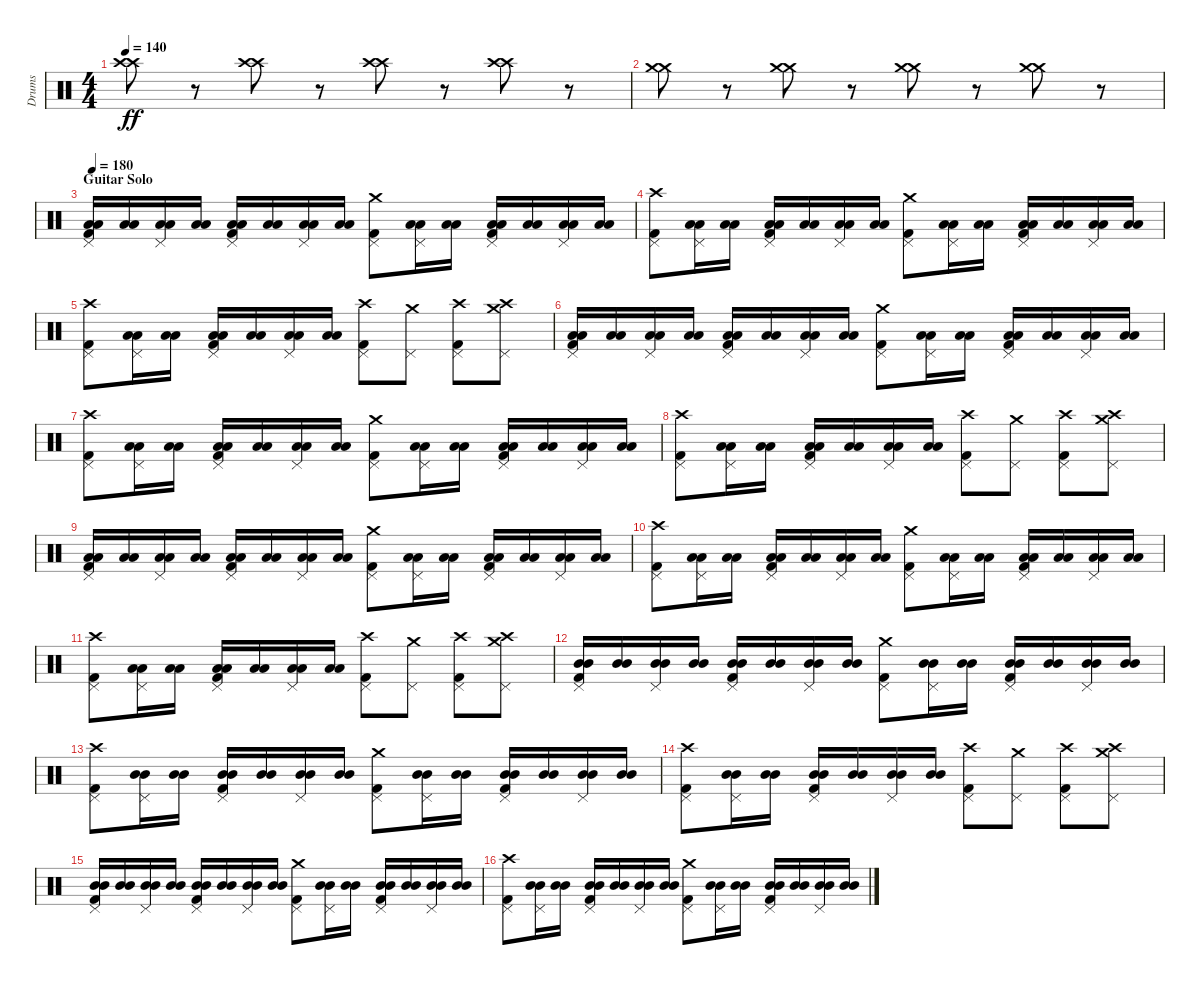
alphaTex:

\track ("Drums" "Drums") {instrument percussion}
\staff {score}
\articulation defaults
\ts (4 4)
\tempo 140
\clef neutral
\ks c
("Crash high (hit)" "Crash high (hit)").8{dy ff} r.8 ("Crash high (hit)" "Crash high (hit)").8 r.8 ("Crash high (hit)" "Crash high (hit)").8 r.8 ("Crash high (hit)" "Crash high (hit)").8 r.8 |
("Crash medium (hit)" "Crash medium (hit)").8 r.8 ("Crash medium (hit)" "Crash medium (hit)").8 r.8 ("Crash medium (hit)" "Crash medium (hit)").8 r.8 ("Crash medium (hit)" "Crash medium (hit)").8 r.8 |
\section ("" "Guitar Solo")
\tempo 180
("Pedal Hi-Hat (hit)" "Low Tom (hit)" "Kick (hit) 2" "Low Tom (hit)").16 ("Low Tom (hit)" "Low Tom (hit)").16 ("Pedal Hi-Hat (hit)" "Low Tom (hit)" "Low Tom (hit)").16 ("Low Tom (hit)" "Low Tom (hit)").16 ("Pedal Hi-Hat (hit)" "Low Tom (hit)" "Kick (hit) 2" "Low Tom (hit)").16 ("Low Tom (hit)" "Low Tom (hit)").16 ("Pedal Hi-Hat (hit)" "Low Tom (hit)" "Low Tom (hit)").16 ("Low Tom (hit)" "Low Tom (hit)").16 ("Pedal Hi-Hat (hit)" "Crash medium (hit)" "Kick (hit) 2").8 ("Pedal Hi-Hat (hit)" "Low Tom (hit)" "Low Tom (hit)").16 ("Low Tom (hit)" "Low Tom (hit)").16 ("Pedal Hi-Hat (hit)" "Low Tom (hit)" "Kick (hit) 2" "Low Tom (hit)").16 ("Low Tom (hit)" "Low Tom (hit)").16 ("Pedal Hi-Hat (hit)" "Low Tom (hit)" "Low Tom (hit)").16 ("Low Tom (hit)" "Low Tom (hit)").16 |
("Crash high (hit)" "Pedal Hi-Hat (hit)" "Kick (hit) 2").8 ("Pedal Hi-Hat (hit)" "Low Tom (hit)" "Low Tom (hit)").16 ("Low Tom (hit)" "Low Tom (hit)").16 ("Pedal Hi-Hat (hit)" "Low Tom (hit)" "Kick (hit) 2" "Low Tom (hit)").16 ("Low Tom (hit)" "Low Tom (hit)").16 ("Pedal Hi-Hat (hit)" "Low Tom (hit)" "Low Tom (hit)").16 ("Low Tom (hit)" "Low Tom (hit)").16 ("Pedal Hi-Hat (hit)" "Crash medium (hit)" "Kick (hit) 2").8 ("Pedal Hi-Hat (hit)" "Low Tom (hit)" "Low Tom (hit)").16 ("Low Tom (hit)" "Low Tom (hit)").16 ("Pedal Hi-Hat (hit)" "Low Tom (hit)" "Kick (hit) 2" "Low Tom (hit)").16 ("Low Tom (hit)" "Low Tom (hit)").16 ("Pedal Hi-Hat (hit)" "Low Tom (hit)" "Low Tom (hit)").16 ("Low Tom (hit)" "Low Tom (hit)").16 |
("Crash high (hit)" "Pedal Hi-Hat (hit)" "Kick (hit) 2").8 ("Pedal Hi-Hat (hit)" "Low Tom (hit)" "Low Tom (hit)").16 ("Low Tom (hit)" "Low Tom (hit)").16 ("Pedal Hi-Hat (hit)" "Low Tom (hit)" "Kick (hit) 2" "Low Tom (hit)").16 ("Low Tom (hit)" "Low Tom (hit)").16 ("Pedal Hi-Hat (hit)" "Low Tom (hit)" "Low Tom (hit)").16 ("Low Tom (hit)" "Low Tom (hit)").16 ("Crash high (hit)" "Pedal Hi-Hat (hit)" "Kick (hit) 2").8 ("Pedal Hi-Hat (hit)" "Crash medium (hit)").8 ("Crash high (hit)" "Pedal Hi-Hat (hit)" "Kick (hit) 2").8 ("Crash high (hit)" "Pedal Hi-Hat (hit)" "Crash medium (hit)").8 |
("Pedal Hi-Hat (hit)" "Low Tom (hit)" "Kick (hit) 2" "Low Tom (hit)").16 ("Low Tom (hit)" "Low Tom (hit)").16 ("Pedal Hi-Hat (hit)" "Low Tom (hit)" "Low Tom (hit)").16 ("Low Tom (hit)" "Low Tom (hit)").16 ("Pedal Hi-Hat (hit)" "Low Tom (hit)" "Kick (hit) 2" "Low Tom (hit)").16 ("Low Tom (hit)" "Low Tom (hit)").16 ("Pedal Hi-Hat (hit)" "Low Tom (hit)" "Low Tom (hit)").16 ("Low Tom (hit)" "Low Tom (hit)").16 ("Pedal Hi-Hat (hit)" "Crash medium (hit)" "Kick (hit) 2").8 ("Pedal Hi-Hat (hit)" "Low Tom (hit)" "Low Tom (hit)").16 ("Low Tom (hit)" "Low Tom (hit)").16 ("Pedal Hi-Hat (hit)" "Low Tom (hit)" "Kick (hit) 2" "Low Tom (hit)").16 ("Low Tom (hit)" "Low Tom (hit)").16 ("Pedal Hi-Hat (hit)" "Low Tom (hit)" "Low Tom (hit)").16 ("Low Tom (hit)" "Low Tom (hit)").16 |
("Crash high (hit)" "Pedal Hi-Hat (hit)" "Kick (hit) 2").8 ("Pedal Hi-Hat (hit)" "Low Tom (hit)" "Low Tom (hit)").16 ("Low Tom (hit)" "Low Tom (hit)").16 ("Pedal Hi-Hat (hit)" "Low Tom (hit)" "Kick (hit) 2" "Low Tom (hit)").16 ("Low Tom (hit)" "Low Tom (hit)").16 ("Pedal Hi-Hat (hit)" "Low Tom (hit)" "Low Tom (hit)").16 ("Low Tom (hit)" "Low Tom (hit)").16 ("Pedal Hi-Hat (hit)" "Crash medium (hit)" "Kick (hit) 2").8 ("Pedal Hi-Hat (hit)" "Low Tom (hit)" "Low Tom (hit)").16 ("Low Tom (hit)" "Low Tom (hit)").16 ("Pedal Hi-Hat (hit)" "Low Tom (hit)" "Kick (hit) 2" "Low Tom (hit)").16 ("Low Tom (hit)" "Low Tom (hit)").16 ("Pedal Hi-Hat (hit)" "Low Tom (hit)" "Low Tom (hit)").16 ("Low Tom (hit)" "Low Tom (hit)").16 |
("Crash high (hit)" "Pedal Hi-Hat (hit)" "Kick (hit) 2").8 ("Pedal Hi-Hat (hit)" "Low Tom (hit)" "Low Tom (hit)").16 ("Low Tom (hit)" "Low Tom (hit)").16 ("Pedal Hi-Hat (hit)" "Low Tom (hit)" "Kick (hit) 2" "Low Tom (hit)").16 ("Low Tom (hit)" "Low Tom (hit)").16 ("Pedal Hi-Hat (hit)" "Low Tom (hit)" "Low Tom (hit)").16 ("Low Tom (hit)" "Low Tom (hit)").16 ("Crash high (hit)" "Pedal Hi-Hat (hit)" "Kick (hit) 2").8 ("Pedal Hi-Hat (hit)" "Crash medium (hit)").8 ("Crash high (hit)" "Pedal Hi-Hat (hit)" "Kick (hit) 2").8 ("Crash high (hit)" "Pedal Hi-Hat (hit)" "Crash medium (hit)").8 |
("Pedal Hi-Hat (hit)" "Low Tom (hit)" "Kick (hit) 2" "Low Tom (hit)").16 ("Low Tom (hit)" "Low Tom (hit)").16 ("Pedal Hi-Hat (hit)" "Low Tom (hit)" "Low Tom (hit)").16 ("Low Tom (hit)" "Low Tom (hit)").16 ("Pedal Hi-Hat (hit)" "Low Tom (hit)" "Kick (hit) 2" "Low Tom (hit)").16 ("Low Tom (hit)" "Low Tom (hit)").16 ("Pedal Hi-Hat (hit)" "Low Tom (hit)" "Low Tom (hit)").16 ("Low Tom (hit)" "Low Tom (hit)").16 ("Pedal Hi-Hat (hit)" "Crash medium (hit)" "Kick (hit) 2").8 ("Pedal Hi-Hat (hit)" "Low Tom (hit)" "Low Tom (hit)").16 ("Low Tom (hit)" "Low Tom (hit)").16 ("Pedal Hi-Hat (hit)" "Low Tom (hit)" "Kick (hit) 2" "Low Tom (hit)").16 ("Low Tom (hit)" "Low Tom (hit)").16 ("Pedal Hi-Hat (hit)" "Low Tom (hit)" "Low Tom (hit)").16 ("Low Tom (hit)" "Low Tom (hit)").16 |
("Crash high (hit)" "Pedal Hi-Hat (hit)" "Kick (hit) 2").8 ("Pedal Hi-Hat (hit)" "Low Tom (hit)" "Low Tom (hit)").16 ("Low Tom (hit)" "Low Tom (hit)").16 ("Pedal Hi-Hat (hit)" "Low Tom (hit)" "Kick (hit) 2" "Low Tom (hit)").16 ("Low Tom (hit)" "Low Tom (hit)").16 ("Pedal Hi-Hat (hit)" "Low Tom (hit)" "Low Tom (hit)").16 ("Low Tom (hit)" "Low Tom (hit)").16 ("Pedal Hi-Hat (hit)" "Crash medium (hit)" "Kick (hit) 2").8 ("Pedal Hi-Hat (hit)" "Low Tom (hit)" "Low Tom (hit)").16 ("Low Tom (hit)" "Low Tom (hit)").16 ("Pedal Hi-Hat (hit)" "Low Tom (hit)" "Kick (hit) 2" "Low Tom (hit)").16 ("Low Tom (hit)" "Low Tom (hit)").16 ("Pedal Hi-Hat (hit)" "Low Tom (hit)" "Low Tom (hit)").16 ("Low Tom (hit)" "Low Tom (hit)").16 |
("Crash high (hit)" "Pedal Hi-Hat (hit)" "Kick (hit) 2").8 ("Pedal Hi-Hat (hit)" "Low Tom (hit)" "Low Tom (hit)").16 ("Low Tom (hit)" "Low Tom (hit)").16 ("Pedal Hi-Hat (hit)" "Low Tom (hit)" "Kick (hit) 2" "Low Tom (hit)").16 ("Low Tom (hit)" "Low Tom (hit)").16 ("Pedal Hi-Hat (hit)" "Low Tom (hit)" "Low Tom (hit)").16 ("Low Tom (hit)" "Low Tom (hit)").16 ("Crash high (hit)" "Pedal Hi-Hat (hit)" "Kick (hit) 2").8 ("Pedal Hi-Hat (hit)" "Crash medium (hit)").8 ("Crash high (hit)" "Pedal Hi-Hat (hit)" "Kick (hit) 2").8 ("Crash high (hit)" "Pedal Hi-Hat (hit)" "Crash medium (hit)").8 |
("Pedal Hi-Hat (hit)" "Mid Tom (hit)" "Kick (hit) 2" "Mid Tom (hit)").16 ("Mid Tom (hit)" "Mid Tom (hit)").16 ("Pedal Hi-Hat (hit)" "Mid Tom (hit)" "Mid Tom (hit)").16 ("Mid Tom (hit)" "Mid Tom (hit)").16 ("Pedal Hi-Hat (hit)" "Mid Tom (hit)" "Kick (hit) 2" "Mid Tom (hit)").16 ("Mid Tom (hit)" "Mid Tom (hit)").16 ("Pedal Hi-Hat (hit)" "Mid Tom (hit)" "Mid Tom (hit)").16 ("Mid Tom (hit)" "Mid Tom (hit)").16 ("Pedal Hi-Hat (hit)" "Crash medium (hit)" "Kick (hit) 2").8 ("Pedal Hi-Hat (hit)" "Mid Tom (hit)" "Mid Tom (hit)").16 ("Mid Tom (hit)" "Mid Tom (hit)").16 ("Pedal Hi-Hat (hit)" "Mid Tom (hit)" "Kick (hit) 2" "Mid Tom (hit)").16 ("Mid Tom (hit)" "Mid Tom (hit)").16 ("Pedal Hi-Hat (hit)" "Mid Tom (hit)" "Mid Tom (hit)").16 ("Mid Tom (hit)" "Mid Tom (hit)").16 |
("Crash high (hit)" "Pedal Hi-Hat (hit)" "Kick (hit) 2").8 ("Pedal Hi-Hat (hit)" "Mid Tom (hit)" "Mid Tom (hit)").16 ("Mid Tom (hit)" "Mid Tom (hit)").16 ("Pedal Hi-Hat (hit)" "Mid Tom (hit)" "Kick (hit) 2" "Mid Tom (hit)").16 ("Mid Tom (hit)" "Mid Tom (hit)").16 ("Pedal Hi-Hat (hit)" "Mid Tom (hit)" "Mid Tom (hit)").16 ("Mid Tom (hit)" "Mid Tom (hit)").16 ("Pedal Hi-Hat (hit)" "Crash medium (hit)" "Kick (hit) 2").8 ("Pedal Hi-Hat (hit)" "Mid Tom (hit)" "Mid Tom (hit)").16 ("Mid Tom (hit)" "Mid Tom (hit)").16 ("Pedal Hi-Hat (hit)" "Mid Tom (hit)" "Kick (hit) 2" "Mid Tom (hit)").16 ("Mid Tom (hit)" "Mid Tom (hit)").16 ("Pedal Hi-Hat (hit)" "Mid Tom (hit)" "Mid Tom (hit)").16 ("Mid Tom (hit)" "Mid Tom (hit)").16 |
("Crash high (hit)" "Pedal Hi-Hat (hit)" "Kick (hit) 2").8 ("Pedal Hi-Hat (hit)" "Mid Tom (hit)" "Mid Tom (hit)").16 ("Mid Tom (hit)" "Mid Tom (hit)").16 ("Pedal Hi-Hat (hit)" "Mid Tom (hit)" "Kick (hit) 2" "Mid Tom (hit)").16 ("Mid Tom (hit)" "Mid Tom (hit)").16 ("Pedal Hi-Hat (hit)" "Mid Tom (hit)" "Mid Tom (hit)").16 ("Mid Tom (hit)" "Mid Tom (hit)").16 ("Crash high (hit)" "Pedal Hi-Hat (hit)" "Kick (hit) 2").8 ("Pedal Hi-Hat (hit)" "Crash medium (hit)").8 ("Crash high (hit)" "Pedal Hi-Hat (hit)" "Kick (hit) 2").8 ("Crash high (hit)" "Pedal Hi-Hat (hit)" "Crash medium (hit)").8 |
("Pedal Hi-Hat (hit)" "Mid Tom (hit)" "Kick (hit) 2" "Mid Tom (hit)").16 ("Mid Tom (hit)" "Mid Tom (hit)").16 ("Pedal Hi-Hat (hit)" "Mid Tom (hit)" "Mid Tom (hit)").16 ("Mid Tom (hit)" "Mid Tom (hit)").16 ("Pedal Hi-Hat (hit)" "Mid Tom (hit)" "Kick (hit) 2" "Mid Tom (hit)").16 ("Mid Tom (hit)" "Mid Tom (hit)").16 ("Pedal Hi-Hat (hit)" "Mid Tom (hit)" "Mid Tom (hit)").16 ("Mid Tom (hit)" "Mid Tom (hit)").16 ("Pedal Hi-Hat (hit)" "Crash medium (hit)" "Kick (hit) 2").8 ("Pedal Hi-Hat (hit)" "Mid Tom (hit)" "Mid Tom (hit)").16 ("Mid Tom (hit)" "Mid Tom (hit)").16 ("Pedal Hi-Hat (hit)" "Mid Tom (hit)" "Kick (hit) 2" "Mid Tom (hit)").16 ("Mid Tom (hit)" "Mid Tom (hit)").16 ("Pedal Hi-Hat (hit)" "Mid Tom (hit)" "Mid Tom (hit)").16 ("Mid Tom (hit)" "Mid Tom (hit)").16 |
("Crash high (hit)" "Pedal Hi-Hat (hit)" "Kick (hit) 2").8 ("Pedal Hi-Hat (hit)" "Mid Tom (hit)" "Mid Tom (hit)").16 ("Mid Tom (hit)" "Mid Tom (hit)").16 ("Pedal Hi-Hat (hit)" "Mid Tom (hit)" "Kick (hit) 2" "Mid Tom (hit)").16 ("Mid Tom (hit)" "Mid Tom (hit)").16 ("Pedal Hi-Hat (hit)" "Mid Tom (hit)" "Mid Tom (hit)").16 ("Mid Tom (hit)" "Mid Tom (hit)").16 ("Pedal Hi-Hat (hit)" "Crash medium (hit)" "Kick (hit) 2").8 ("Pedal Hi-Hat (hit)" "Mid Tom (hit)" "Mid Tom (hit)").16 ("Mid Tom (hit)" "Mid Tom (hit)").16 ("Pedal Hi-Hat (hit)" "Mid Tom (hit)" "Kick (hit) 2" "Mid Tom (hit)").16 ("Mid Tom (hit)" "Mid Tom (hit)").16 ("Pedal Hi-Hat (hit)" "Mid Tom (hit)" "Mid Tom (hit)").16 ("Mid Tom (hit)" "Mid Tom (hit)").16
